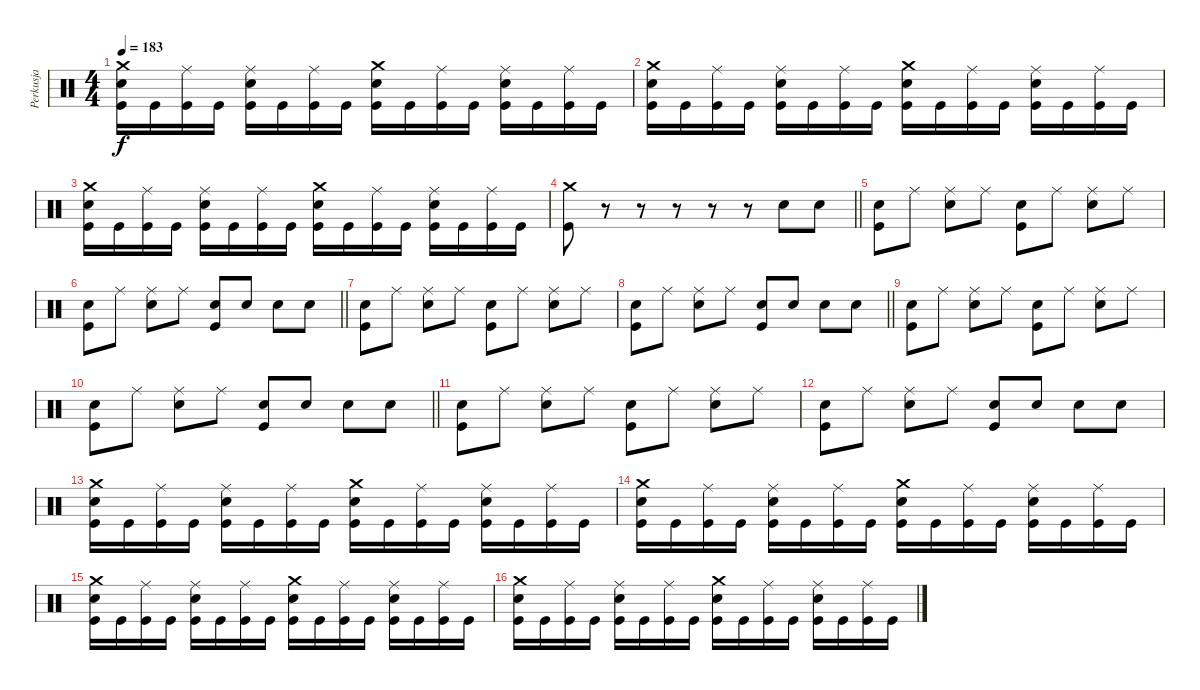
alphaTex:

\track ("Perkusja" "Perkusja") {instrument percussion}
\staff {score}
\articulation defaults
\ts (4 4)
\tempo 183
\clef neutral
\ks c
("Kick (hit)" "Snare (hit) 2" "Crash medium (hit)").16{dy f} "Kick (hit)".16 ("Kick (hit)" "Ride (middle)").16 "Kick (hit)".16 ("Kick (hit)" "Ride (middle)" "Snare (hit) 2").16 "Kick (hit)".16 ("Kick (hit)" "Ride (middle)").16 "Kick (hit)".16 ("Kick (hit)" "Snare (hit) 2" "Crash medium (hit)").16 "Kick (hit)".16 ("Kick (hit)" "Ride (middle)").16 "Kick (hit)".16 ("Kick (hit)" "Ride (middle)" "Snare (hit) 2").16 "Kick (hit)".16 ("Kick (hit)" "Ride (middle)").16 "Kick (hit)".16 |
("Kick (hit)" "Snare (hit) 2" "Crash medium (hit)").16 "Kick (hit)".16 ("Kick (hit)" "Ride (middle)").16 "Kick (hit)".16 ("Kick (hit)" "Ride (middle)" "Snare (hit) 2").16 "Kick (hit)".16 ("Kick (hit)" "Ride (middle)").16 "Kick (hit)".16 ("Kick (hit)" "Snare (hit) 2" "Crash medium (hit)").16 "Kick (hit)".16 ("Kick (hit)" "Ride (middle)").16 "Kick (hit)".16 ("Kick (hit)" "Ride (middle)" "Snare (hit) 2").16 "Kick (hit)".16 ("Kick (hit)" "Ride (middle)").16 "Kick (hit)".16 |
("Kick (hit)" "Snare (hit) 2" "Crash medium (hit)").16 "Kick (hit)".16 ("Kick (hit)" "Ride (middle)").16 "Kick (hit)".16 ("Kick (hit)" "Ride (middle)" "Snare (hit) 2").16 "Kick (hit)".16 ("Kick (hit)" "Ride (middle)").16 "Kick (hit)".16 ("Kick (hit)" "Snare (hit) 2" "Crash medium (hit)").16 "Kick (hit)".16 ("Kick (hit)" "Ride (middle)").16 "Kick (hit)".16 ("Kick (hit)" "Ride (middle)" "Snare (hit) 2").16 "Kick (hit)".16 ("Kick (hit)" "Ride (middle)").16 "Kick (hit)".16 |
\barLineRight lightlight
("Kick (hit)" "Crash medium (hit)").8 r.8 r.8 r.8 r.8 r.8 "Snare (hit) 2".8 "Snare (hit) 2".8 |
("Kick (hit)" "Snare (hit) 2").8 "Ride (middle)".8 ("Ride (middle)" "Snare (hit) 2").8 "Ride (middle)".8 ("Kick (hit)" "Snare (hit) 2").8 "Ride (middle)".8 ("Ride (middle)" "Snare (hit) 2").8 "Ride (middle)".8 |
\barLineRight lightlight
("Kick (hit)" "Snare (hit) 2").8 "Ride (middle)".8 ("Ride (middle)" "Snare (hit) 2").8 "Ride (middle)".8 ("Kick (hit)" "Snare (hit) 2").8 "Snare (hit) 2".8 "Snare (hit) 2".8 "Snare (hit) 2".8 |
("Kick (hit)" "Snare (hit) 2").8 "Ride (middle)".8 ("Ride (middle)" "Snare (hit) 2").8 "Ride (middle)".8 ("Kick (hit)" "Snare (hit) 2").8 "Ride (middle)".8 ("Ride (middle)" "Snare (hit) 2").8 "Ride (middle)".8 |
\barLineRight lightlight
("Kick (hit)" "Snare (hit) 2").8 "Ride (middle)".8 ("Ride (middle)" "Snare (hit) 2").8 "Ride (middle)".8 ("Kick (hit)" "Snare (hit) 2").8 "Snare (hit) 2".8 "Snare (hit) 2".8 "Snare (hit) 2".8 |
("Kick (hit)" "Snare (hit) 2").8 "Ride (middle)".8 ("Ride (middle)" "Snare (hit) 2").8 "Ride (middle)".8 ("Kick (hit)" "Snare (hit) 2").8 "Ride (middle)".8 ("Ride (middle)" "Snare (hit) 2").8 "Ride (middle)".8 |
\barLineRight lightlight
("Kick (hit)" "Snare (hit) 2").8 "Ride (middle)".8 ("Ride (middle)" "Snare (hit) 2").8 "Ride (middle)".8 ("Kick (hit)" "Snare (hit) 2").8 "Snare (hit) 2".8 "Snare (hit) 2".8 "Snare (hit) 2".8 |
("Kick (hit)" "Snare (hit) 2").8 "Ride (middle)".8 ("Ride (middle)" "Snare (hit) 2").8 "Ride (middle)".8 ("Kick (hit)" "Snare (hit) 2").8 "Ride (middle)".8 ("Ride (middle)" "Snare (hit) 2").8 "Ride (middle)".8 |
("Kick (hit)" "Snare (hit) 2").8 "Ride (middle)".8 ("Ride (middle)" "Snare (hit) 2").8 "Ride (middle)".8 ("Kick (hit)" "Snare (hit) 2").8 "Snare (hit) 2".8 "Snare (hit) 2".8 "Snare (hit) 2".8 |
("Kick (hit)" "Snare (hit) 2" "Crash medium (hit)").16 "Kick (hit)".16 ("Kick (hit)" "Ride (middle)").16 "Kick (hit)".16 ("Kick (hit)" "Ride (middle)" "Snare (hit) 2").16 "Kick (hit)".16 ("Kick (hit)" "Ride (middle)").16 "Kick (hit)".16 ("Kick (hit)" "Snare (hit) 2" "Crash medium (hit)").16 "Kick (hit)".16 ("Kick (hit)" "Ride (middle)").16 "Kick (hit)".16 ("Kick (hit)" "Ride (middle)" "Snare (hit) 2").16 "Kick (hit)".16 ("Kick (hit)" "Ride (middle)").16 "Kick (hit)".16 |
("Kick (hit)" "Snare (hit) 2" "Crash medium (hit)").16 "Kick (hit)".16 ("Kick (hit)" "Ride (middle)").16 "Kick (hit)".16 ("Kick (hit)" "Ride (middle)" "Snare (hit) 2").16 "Kick (hit)".16 ("Kick (hit)" "Ride (middle)").16 "Kick (hit)".16 ("Kick (hit)" "Snare (hit) 2" "Crash medium (hit)").16 "Kick (hit)".16 ("Kick (hit)" "Ride (middle)").16 "Kick (hit)".16 ("Kick (hit)" "Ride (middle)" "Snare (hit) 2").16 "Kick (hit)".16 ("Kick (hit)" "Ride (middle)").16 "Kick (hit)".16 |
("Kick (hit)" "Snare (hit) 2" "Crash medium (hit)").16 "Kick (hit)".16 ("Kick (hit)" "Ride (middle)").16 "Kick (hit)".16 ("Kick (hit)" "Ride (middle)" "Snare (hit) 2").16 "Kick (hit)".16 ("Kick (hit)" "Ride (middle)").16 "Kick (hit)".16 ("Kick (hit)" "Snare (hit) 2" "Crash medium (hit)").16 "Kick (hit)".16 ("Kick (hit)" "Ride (middle)").16 "Kick (hit)".16 ("Kick (hit)" "Ride (middle)" "Snare (hit) 2").16 "Kick (hit)".16 ("Kick (hit)" "Ride (middle)").16 "Kick (hit)".16 |
("Kick (hit)" "Snare (hit) 2" "Crash medium (hit)").16 "Kick (hit)".16 ("Kick (hit)" "Ride (middle)").16 "Kick (hit)".16 ("Kick (hit)" "Ride (middle)" "Snare (hit) 2").16 "Kick (hit)".16 ("Kick (hit)" "Ride (middle)").16 "Kick (hit)".16 ("Kick (hit)" "Snare (hit) 2" "Crash medium (hit)").16 "Kick (hit)".16 ("Kick (hit)" "Ride (middle)").16 "Kick (hit)".16 ("Kick (hit)" "Ride (middle)" "Snare (hit) 2").16 "Kick (hit)".16 ("Kick (hit)" "Ride (middle)").16 "Kick (hit)".16
